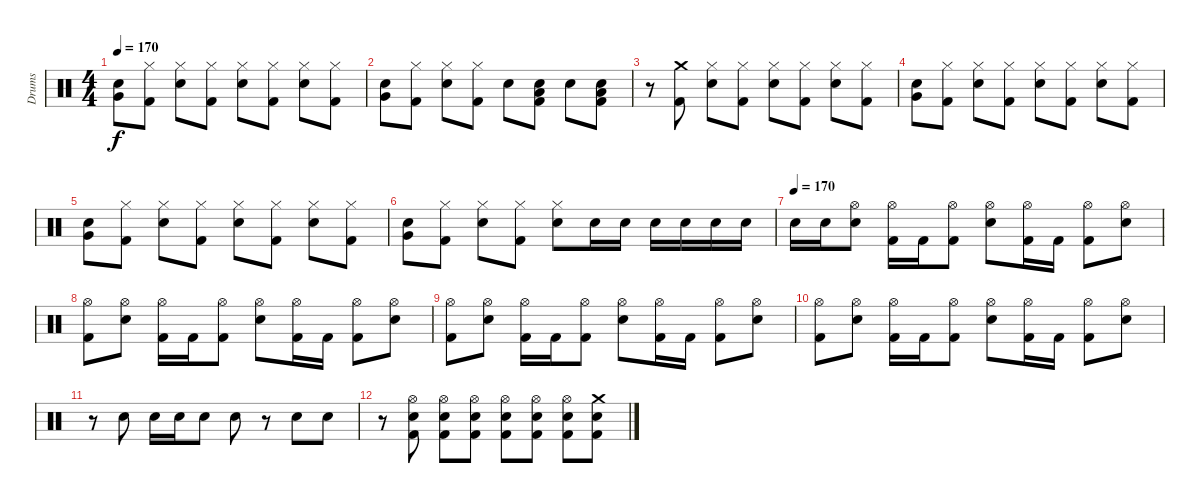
\track ("Drums" "Drums") {instrument percussion}
\staff {score}
\articulation defaults
\ts (4 4)
\tempo 170
\clef neutral
\ks c
("Very Low Tom (hit)" "Snare (hit) 2").8{dy f} ("Hi-Hat (closed)" "Kick (hit) 2").8 ("Hi-Hat (closed)" "Snare (hit) 2").8 ("Hi-Hat (closed)" "Kick (hit) 2").8 ("Hi-Hat (closed)" "Snare (hit) 2").8 ("Hi-Hat (closed)" "Kick (hit) 2").8 ("Hi-Hat (closed)" "Snare (hit) 2").8 ("Hi-Hat (closed)" "Kick (hit) 2").8 |
("Very Low Tom (hit)" "Snare (hit) 2").8 ("Hi-Hat (closed)" "Kick (hit) 2").8 ("Hi-Hat (closed)" "Snare (hit) 2").8 ("Hi-Hat (closed)" "Kick (hit) 2").8 "Snare (hit) 2".8 ("Low Floor Tom (hit)" "Snare (hit) 2" "Kick (hit) 2").8 "Snare (hit) 2".8 ("Low Floor Tom (hit)" "Snare (hit) 2" "Kick (hit) 2").8 |
r.8 ("Crash medium (hit)" "Kick (hit) 2").8 ("Hi-Hat (closed)" "Snare (hit) 2").8 ("Hi-Hat (closed)" "Kick (hit) 2").8 ("Hi-Hat (closed)" "Snare (hit) 2").8 ("Hi-Hat (closed)" "Kick (hit) 2").8 ("Hi-Hat (closed)" "Snare (hit) 2").8 ("Hi-Hat (closed)" "Kick (hit) 2").8 |
("Very Low Tom (hit)" "Snare (hit) 2").8 ("Hi-Hat (closed)" "Kick (hit) 2").8 ("Hi-Hat (closed)" "Snare (hit) 2").8 ("Hi-Hat (closed)" "Kick (hit) 2").8 ("Hi-Hat (closed)" "Snare (hit) 2").8 ("Hi-Hat (closed)" "Kick (hit) 2").8 ("Hi-Hat (closed)" "Snare (hit) 2").8 ("Hi-Hat (closed)" "Kick (hit) 2").8 |
("Very Low Tom (hit)" "Snare (hit) 2").8 ("Hi-Hat (closed)" "Kick (hit) 2").8 ("Hi-Hat (closed)" "Snare (hit) 2").8 ("Hi-Hat (closed)" "Kick (hit) 2").8 ("Hi-Hat (closed)" "Snare (hit) 2").8 ("Hi-Hat (closed)" "Kick (hit) 2").8 ("Hi-Hat (closed)" "Snare (hit) 2").8 ("Hi-Hat (closed)" "Kick (hit) 2").8 |
("Very Low Tom (hit)" "Snare (hit) 2").8 ("Hi-Hat (closed)" "Kick (hit) 2").8 ("Hi-Hat (closed)" "Snare (hit) 2").8 ("Hi-Hat (closed)" "Kick (hit) 2").8 ("Hi-Hat (closed)" "Snare (hit) 2").8 "Snare (hit) 2".16 "Snare (hit) 2".16 "Snare (hit) 2".16 "Snare (hit) 2".16 "Snare (hit) 2".16 "Snare (hit) 2".16 |
\tempo (170)
"Snare (hit) 2".16 "Snare (hit) 2".16 ("Hi-Hat (open)" "Snare (hit) 2").8 ("Hi-Hat (open)" "Kick (hit) 2").16 "Kick (hit) 2".16 ("Hi-Hat (open)" "Kick (hit) 2").8 ("Hi-Hat (open)" "Snare (hit) 2").8 ("Hi-Hat (open)" "Kick (hit) 2").16 "Kick (hit) 2".16 ("Hi-Hat (open)" "Kick (hit) 2").8 ("Hi-Hat (open)" "Snare (hit) 2").8 |
("Hi-Hat (open)" "Kick (hit) 2").8 ("Hi-Hat (open)" "Snare (hit) 2").8 ("Hi-Hat (open)" "Kick (hit) 2").16 "Kick (hit) 2".16 ("Hi-Hat (open)" "Kick (hit) 2").8 ("Hi-Hat (open)" "Snare (hit) 2").8 ("Hi-Hat (open)" "Kick (hit) 2").16 "Kick (hit) 2".16 ("Hi-Hat (open)" "Kick (hit) 2").8 ("Hi-Hat (open)" "Snare (hit) 2").8 |
("Hi-Hat (open)" "Kick (hit) 2").8 ("Hi-Hat (open)" "Snare (hit) 2").8 ("Hi-Hat (open)" "Kick (hit) 2").16 "Kick (hit) 2".16 ("Hi-Hat (open)" "Kick (hit) 2").8 ("Hi-Hat (open)" "Snare (hit) 2").8 ("Hi-Hat (open)" "Kick (hit) 2").16 "Kick (hit) 2".16 ("Hi-Hat (open)" "Kick (hit) 2").8 ("Hi-Hat (open)" "Snare (hit) 2").8 |
("Hi-Hat (open)" "Kick (hit) 2").8 ("Hi-Hat (open)" "Snare (hit) 2").8 ("Hi-Hat (open)" "Kick (hit) 2").16 "Kick (hit) 2".16 ("Hi-Hat (open)" "Kick (hit) 2").8 ("Hi-Hat (open)" "Snare (hit) 2").8 ("Hi-Hat (open)" "Kick (hit) 2").16 "Kick (hit) 2".16 ("Hi-Hat (open)" "Kick (hit) 2").8 ("Hi-Hat (open)" "Snare (hit) 2").8 |
r.8 "Snare (hit) 2".8 "Snare (hit) 2".16 "Snare (hit) 2".16 "Snare (hit) 2".8 "Snare (hit) 2".8 r.8 "Snare (hit) 2".8 "Snare (hit) 2".8 |
r.8 ("Hi-Hat (open)" "Snare (hit) 2" "Kick (hit) 2").8 ("Hi-Hat (open)" "Snare (hit) 2" "Kick (hit) 2").8 ("Hi-Hat (open)" "Snare (hit) 2" "Kick (hit) 2").8 ("Hi-Hat (open)" "Snare (hit) 2" "Kick (hit) 2").8 ("Hi-Hat (open)" "Snare (hit) 2" "Kick (hit) 2").8 ("Hi-Hat (open)" "Snare (hit) 2" "Kick (hit) 2").8 ("Crash medium (hit)" "Snare (hit) 2" "Kick (hit) 2").8
